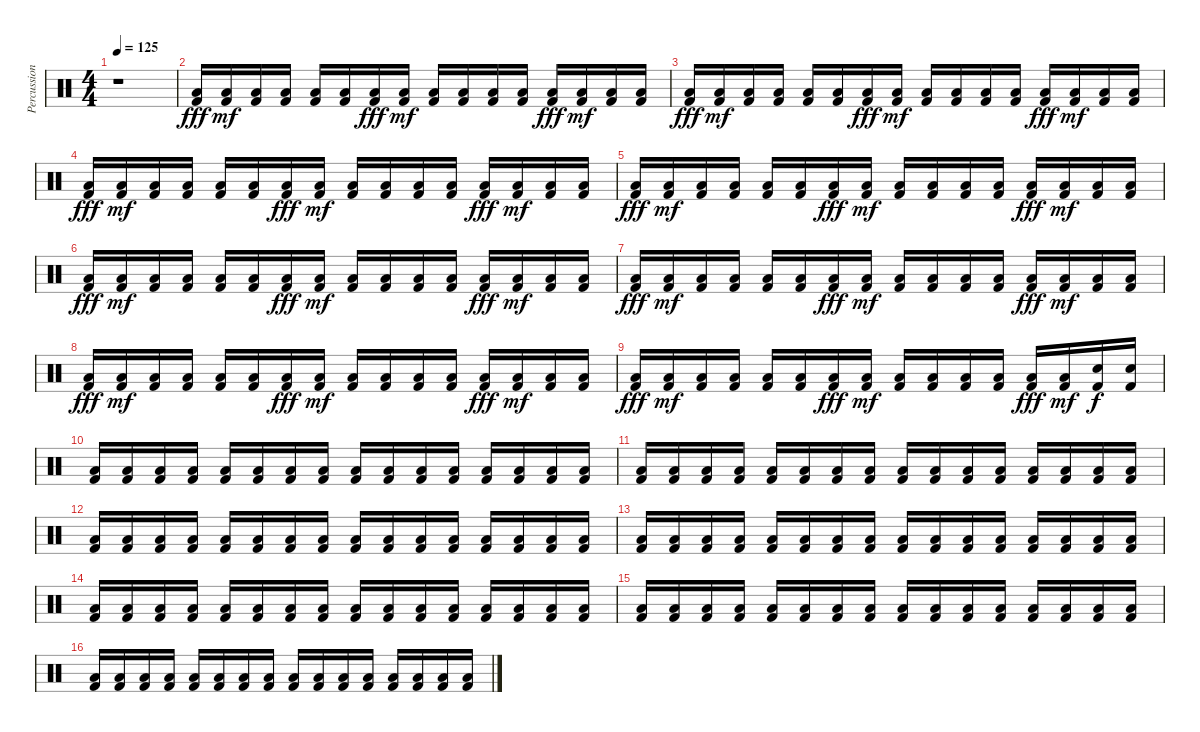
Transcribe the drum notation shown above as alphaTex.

\track ("Percussion" "Percussion") {mute instrument percussion}
\staff {score}
\articulation defaults
\ts (4 4)
\tempo 125
\clef neutral
\ks c
r.1{dy f} |
("Low Tom (hit)" "Kick (hit) 2").16{dy fff} ("Low Tom (hit)" "Kick (hit) 2").16{dy mf} ("Low Tom (hit)" "Kick (hit) 2").16 ("Low Tom (hit)" "Kick (hit) 2").16 ("Low Tom (hit)" "Kick (hit) 2").16 ("Low Tom (hit)" "Kick (hit) 2").16 ("Low Tom (hit)" "Kick (hit) 2").16{dy fff} ("Low Tom (hit)" "Kick (hit) 2").16{dy mf} ("Low Tom (hit)" "Kick (hit) 2").16 ("Low Tom (hit)" "Kick (hit) 2").16 ("Low Tom (hit)" "Kick (hit) 2").16 ("Low Tom (hit)" "Kick (hit) 2").16 ("Low Tom (hit)" "Kick (hit) 2").16{dy fff} ("Low Tom (hit)" "Kick (hit) 2").16{dy mf} ("Low Tom (hit)" "Kick (hit) 2").16 ("Low Tom (hit)" "Kick (hit) 2").16 |
("Low Tom (hit)" "Kick (hit) 2").16{dy fff} ("Low Tom (hit)" "Kick (hit) 2").16{dy mf} ("Low Tom (hit)" "Kick (hit) 2").16 ("Low Tom (hit)" "Kick (hit) 2").16 ("Low Tom (hit)" "Kick (hit) 2").16 ("Low Tom (hit)" "Kick (hit) 2").16 ("Low Tom (hit)" "Kick (hit) 2").16{dy fff} ("Low Tom (hit)" "Kick (hit) 2").16{dy mf} ("Low Tom (hit)" "Kick (hit) 2").16 ("Low Tom (hit)" "Kick (hit) 2").16 ("Low Tom (hit)" "Kick (hit) 2").16 ("Low Tom (hit)" "Kick (hit) 2").16 ("Low Tom (hit)" "Kick (hit) 2").16{dy fff} ("Low Tom (hit)" "Kick (hit) 2").16{dy mf} ("Low Tom (hit)" "Kick (hit) 2").16 ("Low Tom (hit)" "Kick (hit) 2").16 |
("Low Tom (hit)" "Kick (hit) 2").16{dy fff} ("Low Tom (hit)" "Kick (hit) 2").16{dy mf} ("Low Tom (hit)" "Kick (hit) 2").16 ("Low Tom (hit)" "Kick (hit) 2").16 ("Low Tom (hit)" "Kick (hit) 2").16 ("Low Tom (hit)" "Kick (hit) 2").16 ("Low Tom (hit)" "Kick (hit) 2").16{dy fff} ("Low Tom (hit)" "Kick (hit) 2").16{dy mf} ("Low Tom (hit)" "Kick (hit) 2").16 ("Low Tom (hit)" "Kick (hit) 2").16 ("Low Tom (hit)" "Kick (hit) 2").16 ("Low Tom (hit)" "Kick (hit) 2").16 ("Low Tom (hit)" "Kick (hit) 2").16{dy fff} ("Low Tom (hit)" "Kick (hit) 2").16{dy mf} ("Low Tom (hit)" "Kick (hit) 2").16 ("Low Tom (hit)" "Kick (hit) 2").16 |
("Low Tom (hit)" "Kick (hit) 2").16{dy fff} ("Low Tom (hit)" "Kick (hit) 2").16{dy mf} ("Low Tom (hit)" "Kick (hit) 2").16 ("Low Tom (hit)" "Kick (hit) 2").16 ("Low Tom (hit)" "Kick (hit) 2").16 ("Low Tom (hit)" "Kick (hit) 2").16 ("Low Tom (hit)" "Kick (hit) 2").16{dy fff} ("Low Tom (hit)" "Kick (hit) 2").16{dy mf} ("Low Tom (hit)" "Kick (hit) 2").16 ("Low Tom (hit)" "Kick (hit) 2").16 ("Low Tom (hit)" "Kick (hit) 2").16 ("Low Tom (hit)" "Kick (hit) 2").16 ("Low Tom (hit)" "Kick (hit) 2").16{dy fff} ("Low Tom (hit)" "Kick (hit) 2").16{dy mf} ("Low Tom (hit)" "Kick (hit) 2").16 ("Low Tom (hit)" "Kick (hit) 2").16 |
("Low Tom (hit)" "Kick (hit) 2").16{dy fff} ("Low Tom (hit)" "Kick (hit) 2").16{dy mf} ("Low Tom (hit)" "Kick (hit) 2").16 ("Low Tom (hit)" "Kick (hit) 2").16 ("Low Tom (hit)" "Kick (hit) 2").16 ("Low Tom (hit)" "Kick (hit) 2").16 ("Low Tom (hit)" "Kick (hit) 2").16{dy fff} ("Low Tom (hit)" "Kick (hit) 2").16{dy mf} ("Low Tom (hit)" "Kick (hit) 2").16 ("Low Tom (hit)" "Kick (hit) 2").16 ("Low Tom (hit)" "Kick (hit) 2").16 ("Low Tom (hit)" "Kick (hit) 2").16 ("Low Tom (hit)" "Kick (hit) 2").16{dy fff} ("Low Tom (hit)" "Kick (hit) 2").16{dy mf} ("Low Tom (hit)" "Kick (hit) 2").16 ("Low Tom (hit)" "Kick (hit) 2").16 |
("Low Tom (hit)" "Kick (hit) 2").16{dy fff} ("Low Tom (hit)" "Kick (hit) 2").16{dy mf} ("Low Tom (hit)" "Kick (hit) 2").16 ("Low Tom (hit)" "Kick (hit) 2").16 ("Low Tom (hit)" "Kick (hit) 2").16 ("Low Tom (hit)" "Kick (hit) 2").16 ("Low Tom (hit)" "Kick (hit) 2").16{dy fff} ("Low Tom (hit)" "Kick (hit) 2").16{dy mf} ("Low Tom (hit)" "Kick (hit) 2").16 ("Low Tom (hit)" "Kick (hit) 2").16 ("Low Tom (hit)" "Kick (hit) 2").16 ("Low Tom (hit)" "Kick (hit) 2").16 ("Low Tom (hit)" "Kick (hit) 2").16{dy fff} ("Low Tom (hit)" "Kick (hit) 2").16{dy mf} ("Low Tom (hit)" "Kick (hit) 2").16 ("Low Tom (hit)" "Kick (hit) 2").16 |
("Low Tom (hit)" "Kick (hit) 2").16{dy fff} ("Low Tom (hit)" "Kick (hit) 2").16{dy mf} ("Low Tom (hit)" "Kick (hit) 2").16 ("Low Tom (hit)" "Kick (hit) 2").16 ("Low Tom (hit)" "Kick (hit) 2").16 ("Low Tom (hit)" "Kick (hit) 2").16 ("Low Tom (hit)" "Kick (hit) 2").16{dy fff} ("Low Tom (hit)" "Kick (hit) 2").16{dy mf} ("Low Tom (hit)" "Kick (hit) 2").16 ("Low Tom (hit)" "Kick (hit) 2").16 ("Low Tom (hit)" "Kick (hit) 2").16 ("Low Tom (hit)" "Kick (hit) 2").16 ("Low Tom (hit)" "Kick (hit) 2").16{dy fff} ("Low Tom (hit)" "Kick (hit) 2").16{dy mf} ("Low Tom (hit)" "Kick (hit) 2").16 ("Low Tom (hit)" "Kick (hit) 2").16 |
("Low Tom (hit)" "Kick (hit) 2").16{dy fff} ("Low Tom (hit)" "Kick (hit) 2").16{dy mf} ("Low Tom (hit)" "Kick (hit) 2").16 ("Low Tom (hit)" "Kick (hit) 2").16 ("Low Tom (hit)" "Kick (hit) 2").16 ("Low Tom (hit)" "Kick (hit) 2").16 ("Low Tom (hit)" "Kick (hit) 2").16{dy fff} ("Low Tom (hit)" "Kick (hit) 2").16{dy mf} ("Low Tom (hit)" "Kick (hit) 2").16 ("Low Tom (hit)" "Kick (hit) 2").16 ("Low Tom (hit)" "Kick (hit) 2").16 ("Low Tom (hit)" "Kick (hit) 2").16 ("Low Tom (hit)" "Kick (hit) 2").16{dy fff} ("Low Tom (hit)" "Kick (hit) 2").16{dy mf} ("Electric Snare (hit)" "Kick (hit) 2").16{dy f} ("Electric Snare (hit)" "Kick (hit) 2").16 |
("Low Tom (hit)" "Kick (hit) 2").16 ("Low Tom (hit)" "Kick (hit) 2").16 ("Low Tom (hit)" "Kick (hit) 2").16 ("Low Tom (hit)" "Kick (hit) 2").16 ("Low Tom (hit)" "Kick (hit) 2").16 ("Low Tom (hit)" "Kick (hit) 2").16 ("Low Tom (hit)" "Kick (hit) 2").16 ("Low Tom (hit)" "Kick (hit) 2").16 ("Low Tom (hit)" "Kick (hit) 2").16 ("Low Tom (hit)" "Kick (hit) 2").16 ("Low Tom (hit)" "Kick (hit) 2").16 ("Low Tom (hit)" "Kick (hit) 2").16 ("Low Tom (hit)" "Kick (hit) 2").16 ("Low Tom (hit)" "Kick (hit) 2").16 ("Low Tom (hit)" "Kick (hit) 2").16 ("Low Tom (hit)" "Kick (hit) 2").16 |
("Low Tom (hit)" "Kick (hit) 2").16 ("Low Tom (hit)" "Kick (hit) 2").16 ("Low Tom (hit)" "Kick (hit) 2").16 ("Low Tom (hit)" "Kick (hit) 2").16 ("Low Tom (hit)" "Kick (hit) 2").16 ("Low Tom (hit)" "Kick (hit) 2").16 ("Low Tom (hit)" "Kick (hit) 2").16 ("Low Tom (hit)" "Kick (hit) 2").16 ("Low Tom (hit)" "Kick (hit) 2").16 ("Low Tom (hit)" "Kick (hit) 2").16 ("Low Tom (hit)" "Kick (hit) 2").16 ("Low Tom (hit)" "Kick (hit) 2").16 ("Low Tom (hit)" "Kick (hit) 2").16 ("Low Tom (hit)" "Kick (hit) 2").16 ("Low Tom (hit)" "Kick (hit) 2").16 ("Low Tom (hit)" "Kick (hit) 2").16 |
("Low Tom (hit)" "Kick (hit) 2").16 ("Low Tom (hit)" "Kick (hit) 2").16 ("Low Tom (hit)" "Kick (hit) 2").16 ("Low Tom (hit)" "Kick (hit) 2").16 ("Low Tom (hit)" "Kick (hit) 2").16 ("Low Tom (hit)" "Kick (hit) 2").16 ("Low Tom (hit)" "Kick (hit) 2").16 ("Low Tom (hit)" "Kick (hit) 2").16 ("Low Tom (hit)" "Kick (hit) 2").16 ("Low Tom (hit)" "Kick (hit) 2").16 ("Low Tom (hit)" "Kick (hit) 2").16 ("Low Tom (hit)" "Kick (hit) 2").16 ("Low Tom (hit)" "Kick (hit) 2").16 ("Low Tom (hit)" "Kick (hit) 2").16 ("Low Tom (hit)" "Kick (hit) 2").16 ("Low Tom (hit)" "Kick (hit) 2").16 |
("Low Tom (hit)" "Kick (hit) 2").16 ("Low Tom (hit)" "Kick (hit) 2").16 ("Low Tom (hit)" "Kick (hit) 2").16 ("Low Tom (hit)" "Kick (hit) 2").16 ("Low Tom (hit)" "Kick (hit) 2").16 ("Low Tom (hit)" "Kick (hit) 2").16 ("Low Tom (hit)" "Kick (hit) 2").16 ("Low Tom (hit)" "Kick (hit) 2").16 ("Low Tom (hit)" "Kick (hit) 2").16 ("Low Tom (hit)" "Kick (hit) 2").16 ("Low Tom (hit)" "Kick (hit) 2").16 ("Low Tom (hit)" "Kick (hit) 2").16 ("Low Tom (hit)" "Kick (hit) 2").16 ("Low Tom (hit)" "Kick (hit) 2").16 ("Low Tom (hit)" "Kick (hit) 2").16 ("Low Tom (hit)" "Kick (hit) 2").16 |
("Low Tom (hit)" "Kick (hit) 2").16 ("Low Tom (hit)" "Kick (hit) 2").16 ("Low Tom (hit)" "Kick (hit) 2").16 ("Low Tom (hit)" "Kick (hit) 2").16 ("Low Tom (hit)" "Kick (hit) 2").16 ("Low Tom (hit)" "Kick (hit) 2").16 ("Low Tom (hit)" "Kick (hit) 2").16 ("Low Tom (hit)" "Kick (hit) 2").16 ("Low Tom (hit)" "Kick (hit) 2").16 ("Low Tom (hit)" "Kick (hit) 2").16 ("Low Tom (hit)" "Kick (hit) 2").16 ("Low Tom (hit)" "Kick (hit) 2").16 ("Low Tom (hit)" "Kick (hit) 2").16 ("Low Tom (hit)" "Kick (hit) 2").16 ("Low Tom (hit)" "Kick (hit) 2").16 ("Low Tom (hit)" "Kick (hit) 2").16 |
("Low Tom (hit)" "Kick (hit) 2").16 ("Low Tom (hit)" "Kick (hit) 2").16 ("Low Tom (hit)" "Kick (hit) 2").16 ("Low Tom (hit)" "Kick (hit) 2").16 ("Low Tom (hit)" "Kick (hit) 2").16 ("Low Tom (hit)" "Kick (hit) 2").16 ("Low Tom (hit)" "Kick (hit) 2").16 ("Low Tom (hit)" "Kick (hit) 2").16 ("Low Tom (hit)" "Kick (hit) 2").16 ("Low Tom (hit)" "Kick (hit) 2").16 ("Low Tom (hit)" "Kick (hit) 2").16 ("Low Tom (hit)" "Kick (hit) 2").16 ("Low Tom (hit)" "Kick (hit) 2").16 ("Low Tom (hit)" "Kick (hit) 2").16 ("Low Tom (hit)" "Kick (hit) 2").16 ("Low Tom (hit)" "Kick (hit) 2").16 |
("Low Tom (hit)" "Kick (hit) 2").16 ("Low Tom (hit)" "Kick (hit) 2").16 ("Low Tom (hit)" "Kick (hit) 2").16 ("Low Tom (hit)" "Kick (hit) 2").16 ("Low Tom (hit)" "Kick (hit) 2").16 ("Low Tom (hit)" "Kick (hit) 2").16 ("Low Tom (hit)" "Kick (hit) 2").16 ("Low Tom (hit)" "Kick (hit) 2").16 ("Low Tom (hit)" "Kick (hit) 2").16 ("Low Tom (hit)" "Kick (hit) 2").16 ("Low Tom (hit)" "Kick (hit) 2").16 ("Low Tom (hit)" "Kick (hit) 2").16 ("Low Tom (hit)" "Kick (hit) 2").16 ("Low Tom (hit)" "Kick (hit) 2").16 ("Low Tom (hit)" "Kick (hit) 2").16 ("Low Tom (hit)" "Kick (hit) 2").16
